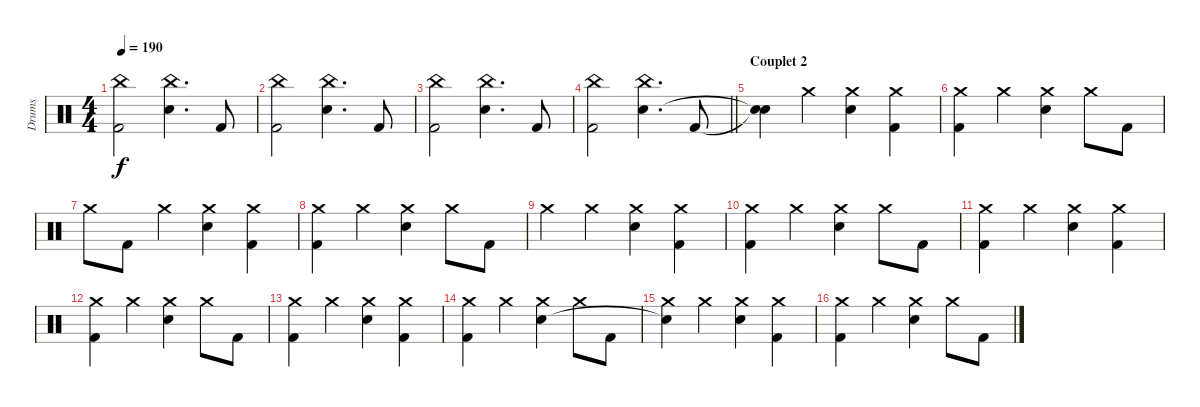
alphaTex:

\track ("Drums" "Drums") {instrument percussion}
\staff {score}
\articulation defaults
\ts (4 4)
\tempo 190
\clef neutral
\ks c
("China (hit)" "Kick (hit) 2").2{dy f} ("China (hit)" "Snare (hit) 2").4{d} "Kick (hit) 2".8 |
("China (hit)" "Kick (hit) 2").2 ("China (hit)" "Snare (hit) 2").4{d} "Kick (hit) 2".8 |
("China (hit)" "Kick (hit) 2").2 ("China (hit)" "Snare (hit) 2").4{d} "Kick (hit) 2".8 |
\barLineRight lightlight
("China (hit)" "Kick (hit) 2").2 ("China (hit)" "Snare (hit) 2").4{d} "Kick (hit) 2".8 |
\section ("" "Couplet 2")
("Snare (hit)"{t} "Snare (hit)"{t}).4 "Crash medium (hit)".4 ("Crash medium (hit)" "Snare (hit) 2").4 ("Crash medium (hit)" "Kick (hit) 2").4 |
("Crash medium (hit)" "Kick (hit) 2").4 "Crash medium (hit)".4 ("Crash medium (hit)" "Snare (hit) 2").4 "Crash medium (hit)".8 "Kick (hit) 2".8 |
"Crash medium (hit)".8 "Kick (hit) 2".8 "Crash medium (hit)".4 ("Crash medium (hit)" "Snare (hit) 2").4 ("Crash medium (hit)" "Kick (hit) 2").4 |
("Crash medium (hit)" "Kick (hit) 2").4 "Crash medium (hit)".4 ("Crash medium (hit)" "Snare (hit) 2").4 "Crash medium (hit)".8 "Kick (hit) 2".8 |
"Crash medium (hit)".4 "Crash medium (hit)".4 ("Crash medium (hit)" "Snare (hit) 2").4 ("Crash medium (hit)" "Kick (hit) 2").4 |
("Crash medium (hit)" "Kick (hit) 2").4 "Crash medium (hit)".4 ("Crash medium (hit)" "Snare (hit) 2").4 "Crash medium (hit)".8 "Kick (hit) 2".8 |
("Crash medium (hit)" "Kick (hit) 2").4 "Crash medium (hit)".4 ("Crash medium (hit)" "Snare (hit) 2").4 ("Crash medium (hit)" "Kick (hit) 2").4 |
("Crash medium (hit)" "Kick (hit) 2").4 "Crash medium (hit)".4 ("Crash medium (hit)" "Snare (hit) 2").4 "Crash medium (hit)".8 "Kick (hit) 2".8 |
("Crash medium (hit)" "Kick (hit) 2").4 "Crash medium (hit)".4 ("Crash medium (hit)" "Snare (hit) 2").4 ("Crash medium (hit)" "Kick (hit) 2").4 |
("Crash medium (hit)" "Kick (hit) 2").4 "Crash medium (hit)".4 ("Crash medium (hit)" "Snare (hit) 2").4 "Crash medium (hit)".8 "Kick (hit) 2".8 |
("Crash medium (hit)" "Snare (hit)"{t}).4 "Crash medium (hit)".4 ("Crash medium (hit)" "Snare (hit) 2").4 ("Crash medium (hit)" "Kick (hit) 2").4 |
("Crash medium (hit)" "Kick (hit) 2").4 "Crash medium (hit)".4 ("Crash medium (hit)" "Snare (hit) 2").4 "Crash medium (hit)".8 "Kick (hit) 2".8
